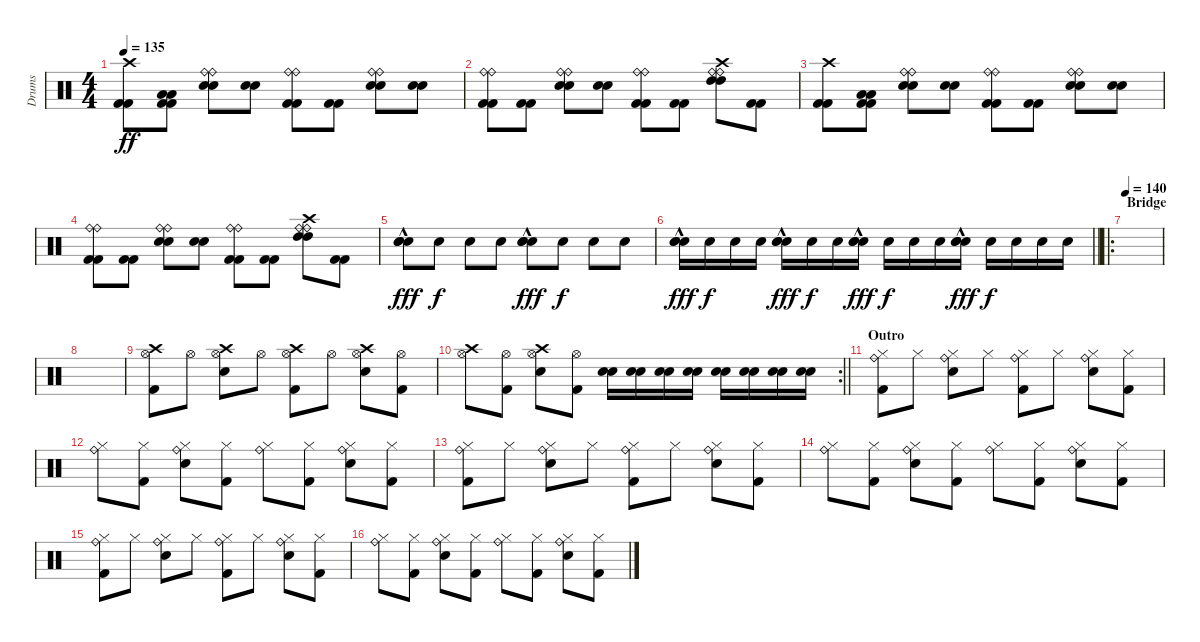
\track ("Drums" "Drums") {instrument percussion}
\staff {score}
\articulation defaults
\ts (4 4)
\tempo 135
\clef neutral
\ks c
("Kick (hit) 2" "Kick (hit) 2" "Crash high (hit)").8{dy ff} ("Kick (hit) 2" "Kick (hit) 2" "Low Tom (hit)" "Low Tom (hit)").8 ("Electric Snare (hit)" "Electric Snare (hit)" "Ride (bell)" "Ride (bell)").8 ("Electric Snare (hit)" "Electric Snare (hit)").8 ("Kick (hit) 2" "Kick (hit) 2" "Ride (bell)" "Ride (bell)").8 ("Kick (hit) 2" "Kick (hit) 2").8 ("Electric Snare (hit)" "Electric Snare (hit)" "Ride (bell)" "Ride (bell)").8 ("Electric Snare (hit)" "Electric Snare (hit)").8 |
("Kick (hit) 2" "Kick (hit) 2" "Ride (bell)" "Ride (bell)").8 ("Kick (hit) 2" "Kick (hit) 2").8 ("Electric Snare (hit)" "Electric Snare (hit)" "Ride (bell)" "Ride (bell)").8 ("Electric Snare (hit)" "Electric Snare (hit)").8 ("Kick (hit) 2" "Kick (hit) 2" "Ride (bell)" "Ride (bell)").8 ("Kick (hit) 2" "Kick (hit) 2").8 ("High Tom (hit)" "High Tom (hit)" "Ride (bell)" "Crash high (hit)" "Ride (bell)").8 ("Kick (hit) 2" "Kick (hit) 2").8 |
("Kick (hit) 2" "Kick (hit) 2" "Crash high (hit)").8 ("Kick (hit) 2" "Kick (hit) 2" "Low Tom (hit)" "Low Tom (hit)").8 ("Electric Snare (hit)" "Electric Snare (hit)" "Ride (bell)" "Ride (bell)").8 ("Electric Snare (hit)" "Electric Snare (hit)").8 ("Kick (hit) 2" "Kick (hit) 2" "Ride (bell)" "Ride (bell)").8 ("Kick (hit) 2" "Kick (hit) 2").8 ("Electric Snare (hit)" "Electric Snare (hit)" "Ride (bell)" "Ride (bell)").8 ("Electric Snare (hit)" "Electric Snare (hit)").8 |
("Kick (hit) 2" "Kick (hit) 2" "Ride (bell)" "Ride (bell)").8 ("Kick (hit) 2" "Kick (hit) 2").8 ("Electric Snare (hit)" "Electric Snare (hit)" "Ride (bell)" "Ride (bell)").8 ("Electric Snare (hit)" "Electric Snare (hit)").8 ("Kick (hit) 2" "Kick (hit) 2" "Ride (bell)" "Ride (bell)").8 ("Kick (hit) 2" "Kick (hit) 2").8 ("High Tom (hit)" "High Tom (hit)" "Ride (bell)" "Crash high (hit)" "Ride (bell)").8 ("Kick (hit) 2" "Kick (hit) 2").8 |
("Snare (hit) 2"{hac} "Electric Snare (hit)"{hac} "Snare (hit) 2"{hac}).8{dy fff} "Electric Snare (hit)".8{dy f} "Electric Snare (hit)".8 "Electric Snare (hit)".8 ("Snare (hit) 2"{hac} "Electric Snare (hit)"{hac} "Snare (hit) 2"{hac}).8{dy fff} "Electric Snare (hit)".8{dy f} "Electric Snare (hit)".8 "Electric Snare (hit)".8 |
\barLineRight lightlight
("Snare (hit) 2"{hac} "Electric Snare (hit)"{hac} "Snare (hit) 2"{hac}).16{dy fff} "Electric Snare (hit)".16{dy f} "Electric Snare (hit)".16 "Electric Snare (hit)".16 ("Snare (hit) 2"{hac} "Electric Snare (hit)"{hac} "Snare (hit) 2"{hac}).16{dy fff} "Electric Snare (hit)".16{dy f} "Electric Snare (hit)".16 ("Snare (hit) 2"{hac} "Electric Snare (hit)"{hac} "Snare (hit) 2"{hac}).16{dy fff} "Electric Snare (hit)".16{dy f} "Electric Snare (hit)".16 "Electric Snare (hit)".16 ("Snare (hit) 2"{hac} "Electric Snare (hit)"{hac} "Snare (hit) 2"{hac}).16{dy fff} "Electric Snare (hit)".16{dy f} "Electric Snare (hit)".16 "Electric Snare (hit)".16 "Electric Snare (hit)".16 |
\ro
\section ("" "Bridge")
\tempo 140
|
|
("Crash high (hit)" "Hi-Hat (open)" "Kick (hit) 2").8 "Hi-Hat (open)".8 ("Crash high (hit)" "Hi-Hat (open)" "Electric Snare (hit)").8 "Hi-Hat (open)".8 ("Crash high (hit)" "Hi-Hat (open)" "Kick (hit) 2").8 "Hi-Hat (open)".8 ("Crash high (hit)" "Hi-Hat (open)" "Electric Snare (hit)").8 ("Hi-Hat (open)" "Kick (hit) 2").8 |
\rc 2
\barLineRight lightlight
("Crash high (hit)" "Hi-Hat (open)").8 ("Hi-Hat (open)" "Kick (hit) 2").8 ("Crash high (hit)" "Hi-Hat (open)" "Electric Snare (hit)").8 ("Hi-Hat (open)" "Kick (hit) 2").8 ("Snare (hit) 2" "Electric Snare (hit)").16 ("Snare (hit) 2" "Electric Snare (hit)").16 ("Snare (hit) 2" "Electric Snare (hit)").16 ("Snare (hit) 2" "Electric Snare (hit)").16 ("Snare (hit) 2" "Electric Snare (hit)").16 ("Snare (hit) 2" "Electric Snare (hit)").16 ("Snare (hit) 2" "Electric Snare (hit)").16 ("Snare (hit) 2" "Electric Snare (hit)").16 |
\section ("" "Outro")
("Ride (bell)" "Hi-Hat (closed)" "Kick (hit) 2").8 "Hi-Hat (closed)".8 ("Ride (bell)" "Hi-Hat (closed)" "Electric Snare (hit)").8 "Hi-Hat (closed)".8 ("Ride (bell)" "Hi-Hat (closed)" "Kick (hit) 2").8 "Hi-Hat (closed)".8 ("Ride (bell)" "Hi-Hat (closed)" "Electric Snare (hit)").8 ("Hi-Hat (closed)" "Kick (hit) 2").8 |
("Ride (bell)" "Hi-Hat (closed)").8 ("Hi-Hat (closed)" "Kick (hit) 2").8 ("Ride (bell)" "Hi-Hat (closed)" "Electric Snare (hit)").8 ("Hi-Hat (closed)" "Kick (hit) 2").8 ("Ride (bell)" "Hi-Hat (closed)").8 ("Hi-Hat (closed)" "Kick (hit) 2").8 ("Ride (bell)" "Hi-Hat (closed)" "Electric Snare (hit)").8 ("Hi-Hat (closed)" "Kick (hit) 2").8 |
("Ride (bell)" "Hi-Hat (closed)" "Kick (hit) 2").8 "Hi-Hat (closed)".8 ("Ride (bell)" "Hi-Hat (closed)" "Electric Snare (hit)").8 "Hi-Hat (closed)".8 ("Ride (bell)" "Hi-Hat (closed)" "Kick (hit) 2").8 "Hi-Hat (closed)".8 ("Ride (bell)" "Hi-Hat (closed)" "Electric Snare (hit)").8 ("Hi-Hat (closed)" "Kick (hit) 2").8 |
("Ride (bell)" "Hi-Hat (closed)").8 ("Hi-Hat (closed)" "Kick (hit) 2").8 ("Ride (bell)" "Hi-Hat (closed)" "Electric Snare (hit)").8 ("Hi-Hat (closed)" "Kick (hit) 2").8 ("Ride (bell)" "Hi-Hat (closed)").8 ("Hi-Hat (closed)" "Kick (hit) 2").8 ("Ride (bell)" "Hi-Hat (closed)" "Electric Snare (hit)").8 ("Hi-Hat (closed)" "Kick (hit) 2").8 |
("Ride (bell)" "Hi-Hat (closed)" "Kick (hit) 2").8 "Hi-Hat (closed)".8 ("Ride (bell)" "Hi-Hat (closed)" "Electric Snare (hit)").8 "Hi-Hat (closed)".8 ("Ride (bell)" "Hi-Hat (closed)" "Kick (hit) 2").8 "Hi-Hat (closed)".8 ("Ride (bell)" "Hi-Hat (closed)" "Electric Snare (hit)").8 ("Hi-Hat (closed)" "Kick (hit) 2").8 |
("Ride (bell)" "Hi-Hat (closed)").8 ("Hi-Hat (closed)" "Kick (hit) 2").8 ("Ride (bell)" "Hi-Hat (closed)" "Electric Snare (hit)").8 ("Hi-Hat (closed)" "Kick (hit) 2").8 ("Ride (bell)" "Hi-Hat (closed)").8 ("Hi-Hat (closed)" "Kick (hit) 2").8 ("Ride (bell)" "Hi-Hat (closed)" "Electric Snare (hit)").8 ("Hi-Hat (closed)" "Kick (hit) 2").8
